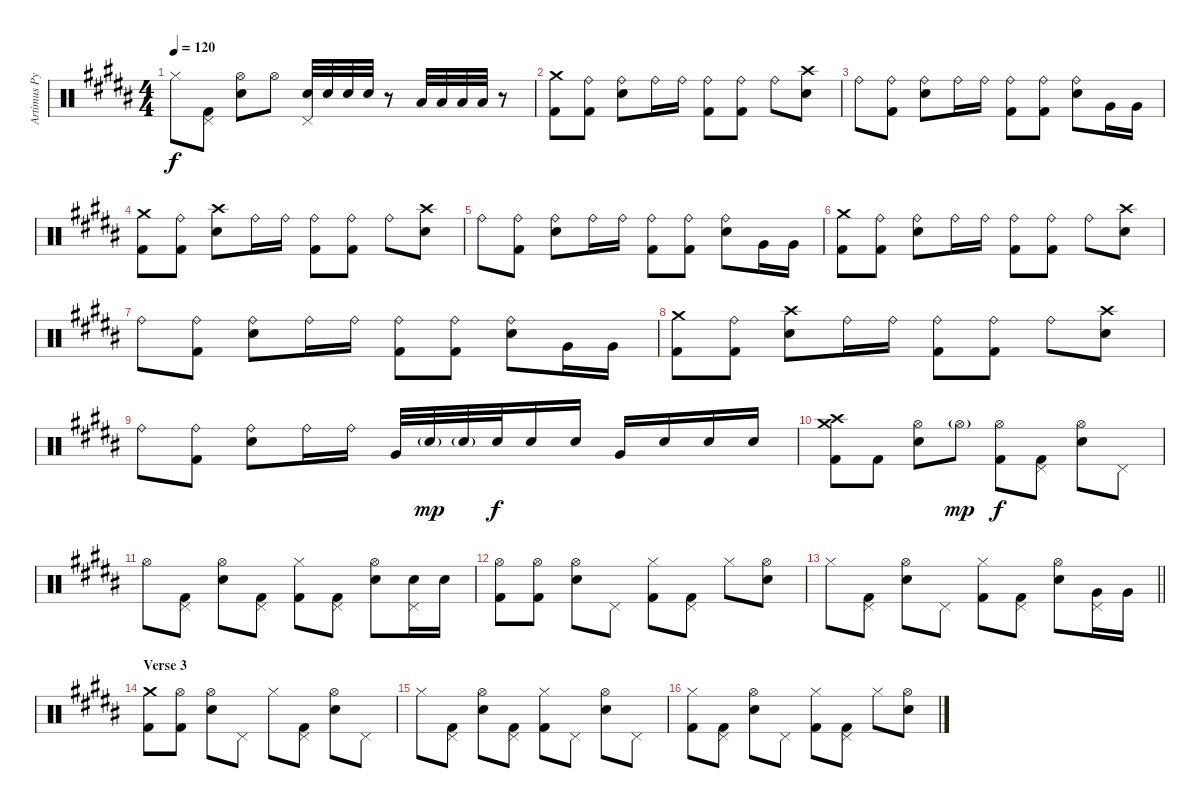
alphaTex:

\track ("Artimus Pyle - Drums" "Artimus Py") {instrument percussion}
\staff {score}
\articulation defaults
\ts (4 4)
\tempo 120
\clef neutral
\ks b "Hi-Hat (closed)".8{dy f}
("Pedal Hi-Hat (hit)" "Kick (hit) 2").8 ("Snare (hit) 2" "Hi-Hat (open)").8 "Hi-Hat (open)".8 ("Snare (hit) 2" "Pedal Hi-Hat (hit)").32 "Snare (hit) 2".32 "Snare (hit) 2".32 "Snare (hit) 2".32 r.8 "Low Tom (hit)".32 "Low Tom (hit)".32 "Low Tom (hit)".32 "Low Tom (hit)".32 r.8 |
("Crash medium (hit)" "Kick (hit) 2").8 ("Ride (bell)" "Kick (hit) 2").8 ("Ride (bell)" "Snare (hit) 2").8 "Ride (bell)".16 "Ride (bell)".16 ("Ride (bell)" "Kick (hit) 2").8 ("Ride (bell)" "Kick (hit) 2").8 "Ride (bell)".8 ("Crash high (hit)" "Snare (hit) 2").8 |
"Ride (bell)".8 ("Ride (bell)" "Kick (hit) 2").8 ("Ride (bell)" "Snare (hit) 2").8 "Ride (bell)".16 "Ride (bell)".16 ("Ride (bell)" "Kick (hit) 2").8 ("Ride (bell)" "Kick (hit) 2").8 ("Ride (bell)" "Snare (hit) 2").8 "Very Low Tom (hit)".16 "Very Low Tom (hit)".16 |
("Crash medium (hit)" "Kick (hit) 2").8 ("Ride (bell)" "Kick (hit) 2").8 ("Crash high (hit)" "Snare (hit) 2").8 "Ride (bell)".16 "Ride (bell)".16 ("Ride (bell)" "Kick (hit) 2").8 ("Ride (bell)" "Kick (hit) 2").8 "Ride (bell)".8 ("Crash high (hit)" "Snare (hit) 2").8 |
"Ride (bell)".8 ("Ride (bell)" "Kick (hit) 2").8 ("Ride (bell)" "Snare (hit) 2").8 "Ride (bell)".16 "Ride (bell)".16 ("Ride (bell)" "Kick (hit) 2").8 ("Ride (bell)" "Kick (hit) 2").8 ("Ride (bell)" "Snare (hit) 2").8 "Very Low Tom (hit)".16 "Very Low Tom (hit)".16 |
("Crash medium (hit)" "Kick (hit) 2").8 ("Ride (bell)" "Kick (hit) 2").8 ("Ride (bell)" "Snare (hit) 2").8 "Ride (bell)".16 "Ride (bell)".16 ("Ride (bell)" "Kick (hit) 2").8 ("Ride (bell)" "Kick (hit) 2").8 "Ride (bell)".8 ("Crash high (hit)" "Snare (hit) 2").8 |
"Ride (bell)".8 ("Ride (bell)" "Kick (hit) 2").8 ("Ride (bell)" "Snare (hit) 2").8 "Ride (bell)".16 "Ride (bell)".16 ("Ride (bell)" "Kick (hit) 2").8 ("Ride (bell)" "Kick (hit) 2").8 ("Ride (bell)" "Snare (hit) 2").8 "Very Low Tom (hit)".16 "Very Low Tom (hit)".16 |
("Crash medium (hit)" "Kick (hit) 2").8 ("Ride (bell)" "Kick (hit) 2").8 ("Crash high (hit)" "Snare (hit) 2").8 "Ride (bell)".16 "Ride (bell)".16 ("Ride (bell)" "Kick (hit) 2").8 ("Ride (bell)" "Kick (hit) 2").8 "Ride (bell)".8 ("Crash high (hit)" "Snare (hit) 2").8 |
"Ride (bell)".8 ("Ride (bell)" "Kick (hit) 2").8 ("Ride (bell)" "Snare (hit) 2").8 "Ride (bell)".16 "Ride (bell)".16 "Very Low Tom (hit)".32 "Snare (hit) 2"{g}.32{dy mp} "Snare (hit) 2"{g}.32 "Snare (hit) 2".32{dy f} "Snare (hit) 2".16 "Snare (hit) 2".16 "Very Low Tom (hit)".16 "Snare (hit) 2".16 "Snare (hit) 2".16 "Snare (hit) 2".16 |
("Crash medium (hit)" "Crash high (hit)" "Kick (hit) 2").8 "Kick (hit) 2".8 ("Snare (hit) 2" "Hi-Hat (open)").8 "Hi-Hat (open)"{g}.8{dy mp} ("Hi-Hat (open)" "Kick (hit) 2").8{dy f} ("Pedal Hi-Hat (hit)" "Kick (hit) 2").8 ("Snare (hit) 2" "Hi-Hat (open)").8 "Pedal Hi-Hat (hit)".8 |
"Hi-Hat (open)".8 ("Pedal Hi-Hat (hit)" "Kick (hit) 2").8 ("Snare (hit) 2" "Hi-Hat (open)").8 ("Pedal Hi-Hat (hit)" "Kick (hit) 2").8 ("Hi-Hat (closed)" "Kick (hit) 2").8 ("Pedal Hi-Hat (hit)" "Kick (hit) 2").8 ("Snare (hit) 2" "Hi-Hat (open)").8 ("Snare (hit) 2" "Pedal Hi-Hat (hit)").16 "Snare (hit) 2".16 |
("Hi-Hat (open)" "Kick (hit) 2").8 ("Hi-Hat (open)" "Kick (hit) 2").8 ("Snare (hit) 2" "Hi-Hat (open)").8 "Pedal Hi-Hat (hit)".8 ("Hi-Hat (closed)" "Kick (hit) 2").8 ("Pedal Hi-Hat (hit)" "Kick (hit) 2").8 "Hi-Hat (closed)".8 ("Snare (hit) 2" "Hi-Hat (open)").8 |
\barLineRight lightlight "Hi-Hat (closed)".8
("Pedal Hi-Hat (hit)" "Kick (hit) 2").8 ("Snare (hit) 2" "Hi-Hat (open)").8 "Pedal Hi-Hat (hit)".8 ("Hi-Hat (closed)" "Kick (hit) 2").8 ("Pedal Hi-Hat (hit)" "Kick (hit) 2").8 ("Snare (hit) 2" "Hi-Hat (open)").8 ("Very Low Tom (hit)" "Pedal Hi-Hat (hit)").16 "Very Low Tom (hit)".16 |
\section ("" "Verse 3")
("Crash medium (hit)" "Kick (hit) 2").8 ("Hi-Hat (open)" "Kick (hit) 2").8 ("Snare (hit) 2" "Hi-Hat (open)").8 "Pedal Hi-Hat (hit)".8 "Hi-Hat (closed)".8 ("Pedal Hi-Hat (hit)" "Kick (hit) 2").8 ("Snare (hit) 2" "Hi-Hat (open)").8 "Pedal Hi-Hat (hit)".8 |
"Hi-Hat (closed)".8 ("Pedal Hi-Hat (hit)" "Kick (hit) 2").8 ("Snare (hit) 2" "Hi-Hat (open)").8 ("Pedal Hi-Hat (hit)" "Kick (hit) 2").8 ("Hi-Hat (closed)" "Kick (hit) 2").8 "Pedal Hi-Hat (hit)".8 ("Snare (hit) 2" "Hi-Hat (open)").8 "Pedal Hi-Hat (hit)".8 |
("Hi-Hat (closed)" "Kick (hit) 2").8 ("Pedal Hi-Hat (hit)" "Kick (hit) 2").8 ("Snare (hit) 2" "Hi-Hat (open)").8 "Pedal Hi-Hat (hit)".8 ("Hi-Hat (closed)" "Kick (hit) 2").8 ("Pedal Hi-Hat (hit)" "Kick (hit) 2").8 "Hi-Hat (closed)".8 ("Snare (hit) 2" "Hi-Hat (open)").8
